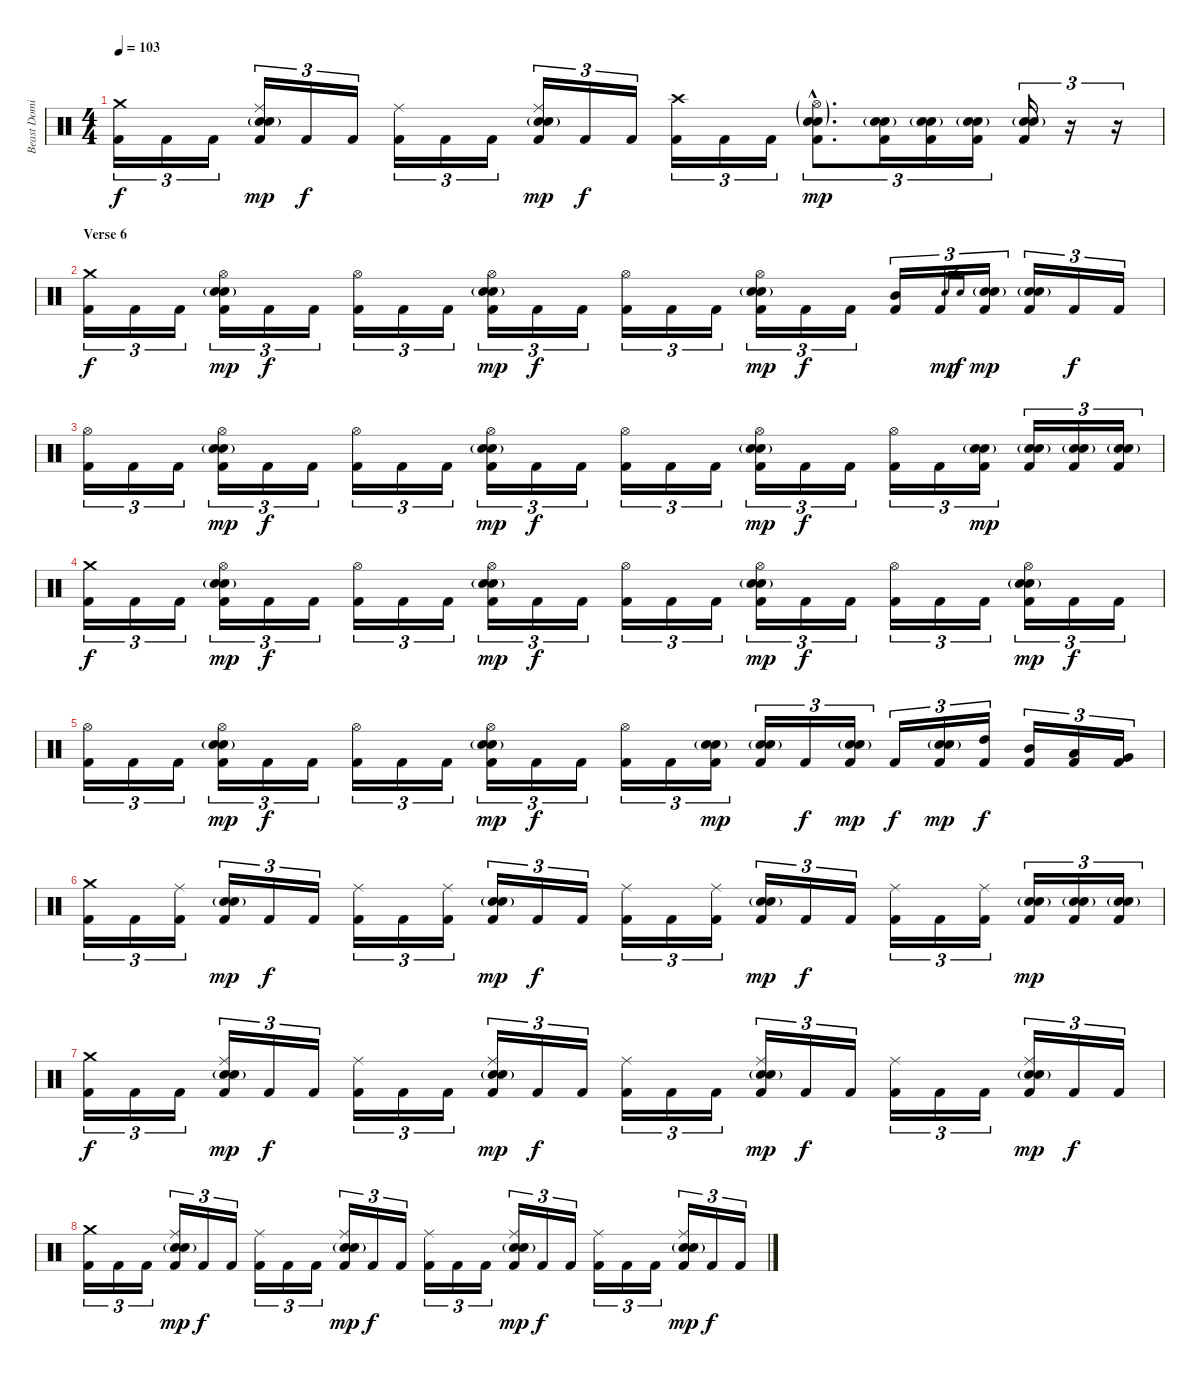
\track ("Beast Dominator" "Beast Domi") {instrument percussion}
\staff {score}
\articulation defaults
\ts (4 4)
\tempo 103
\clef neutral
\ks c
("Crash medium (hit)" "Kick (hit) 2").16{tu (3 2) dy f} "Kick (hit) 2".16{tu (3 2)} "Kick (hit) 2".16{tu (3 2)} ("Ride (middle)" "Electric Snare (hit)"{g} "Snare (hit) 2" "Kick (hit) 2").16{tu (3 2) dy mp} "Kick (hit) 2".16{tu (3 2) dy f} "Kick (hit) 2".16{tu (3 2)} ("Ride (middle)" "Kick (hit) 2").16{tu (3 2)} "Kick (hit) 2".16{tu (3 2)} "Kick (hit) 2".16{tu (3 2)} ("Ride (middle)" "Electric Snare (hit)"{g} "Snare (hit) 2" "Kick (hit) 2").16{tu (3 2) dy mp} "Kick (hit) 2".16{tu (3 2) dy f} "Kick (hit) 2".16{tu (3 2)} ("Crash high (hit)" "Kick (hit) 2").16{tu (3 2)} "Kick (hit) 2".16{tu (3 2)} "Kick (hit) 2".16{tu (3 2)} ("Hi-Hat (open)"{g hac} "Electric Snare (hit)"{g hac} "Snare (hit) 2"{hac} "Kick (hit) 2"{hac}).8{d tu (3 2) dy mp} ("Electric Snare (hit)"{g} "Snare (hit) 2" "Kick (hit) 2").16{tu (3 2)} ("Electric Snare (hit)"{g} "Snare (hit) 2" "Kick (hit) 2").16{tu (3 2)} ("Electric Snare (hit)"{g} "Snare (hit) 2" "Kick (hit) 2").16{tu (3 2)} ("Electric Snare (hit)"{g} "Snare (hit) 2" "Kick (hit) 2").16{tu (3 2)} r.16{tu (3 2)} r.16{tu (3 2)} |
\section ("" "Verse 6")
("Crash medium (hit)" "Kick (hit) 2").16{tu (3 2) dy f} "Kick (hit) 2".16{tu (3 2)} "Kick (hit) 2".16{tu (3 2)} ("Hi-Hat (open)" "Electric Snare (hit)"{g} "Snare (hit) 2" "Kick (hit) 2").16{tu (3 2) dy mp} "Kick (hit) 2".16{tu (3 2) dy f} "Kick (hit) 2".16{tu (3 2)} ("Hi-Hat (open)" "Kick (hit) 2").16{tu (3 2)} "Kick (hit) 2".16{tu (3 2)} "Kick (hit) 2".16{tu (3 2)} ("Hi-Hat (open)" "Electric Snare (hit)"{g} "Snare (hit) 2" "Kick (hit) 2").16{tu (3 2) dy mp} "Kick (hit) 2".16{tu (3 2) dy f} "Kick (hit) 2".16{tu (3 2)} ("Hi-Hat (open)" "Kick (hit) 2").16{tu (3 2)} "Kick (hit) 2".16{tu (3 2)} "Kick (hit) 2".16{tu (3 2)} ("Hi-Hat (open)" "Electric Snare (hit)"{g} "Snare (hit) 2" "Kick (hit) 2").16{tu (3 2) dy mp} "Kick (hit) 2".16{tu (3 2) dy f} "Kick (hit) 2".16{tu (3 2)} ("Mid Tom (hit)" "Kick (hit) 2").16{tu (3 2)} "Kick (hit) 2".16{tu (3 2)} "Electric Snare (hit)".16{gr dy mp} "Snare (hit) 2".16{gr dy f} ("Electric Snare (hit)"{g} "Snare (hit) 2" "Kick (hit) 2").16{tu (3 2) dy mp} ("Electric Snare (hit)"{g} "Snare (hit) 2" "Kick (hit) 2").16{tu (3 2)} "Kick (hit) 2".16{tu (3 2) dy f} "Kick (hit) 2".16{tu (3 2)} |
("Hi-Hat (open)" "Kick (hit) 2").16{tu (3 2)} "Kick (hit) 2".16{tu (3 2)} "Kick (hit) 2".16{tu (3 2)} ("Hi-Hat (open)" "Electric Snare (hit)"{g} "Snare (hit) 2" "Kick (hit) 2").16{tu (3 2) dy mp} "Kick (hit) 2".16{tu (3 2) dy f} "Kick (hit) 2".16{tu (3 2)} ("Hi-Hat (open)" "Kick (hit) 2").16{tu (3 2)} "Kick (hit) 2".16{tu (3 2)} "Kick (hit) 2".16{tu (3 2)} ("Hi-Hat (open)" "Electric Snare (hit)"{g} "Snare (hit) 2" "Kick (hit) 2").16{tu (3 2) dy mp} "Kick (hit) 2".16{tu (3 2) dy f} "Kick (hit) 2".16{tu (3 2)} ("Hi-Hat (open)" "Kick (hit) 2").16{tu (3 2)} "Kick (hit) 2".16{tu (3 2)} "Kick (hit) 2".16{tu (3 2)} ("Hi-Hat (open)" "Electric Snare (hit)"{g} "Snare (hit) 2" "Kick (hit) 2").16{tu (3 2) dy mp} "Kick (hit) 2".16{tu (3 2) dy f} "Kick (hit) 2".16{tu (3 2)} ("Hi-Hat (open)" "Kick (hit) 2").16{tu (3 2)} "Kick (hit) 2".16{tu (3 2)} ("Electric Snare (hit)"{g} "Snare (hit) 2" "Kick (hit) 2").16{tu (3 2) dy mp} ("Electric Snare (hit)"{g} "Snare (hit) 2" "Kick (hit) 2").16{tu (3 2)} ("Electric Snare (hit)"{g} "Snare (hit) 2" "Kick (hit) 2").16{tu (3 2)} ("Electric Snare (hit)"{g} "Snare (hit) 2" "Kick (hit) 2").16{tu (3 2)} |
("Crash medium (hit)" "Kick (hit) 2").16{tu (3 2) dy f} "Kick (hit) 2".16{tu (3 2)} "Kick (hit) 2".16{tu (3 2)} ("Hi-Hat (open)" "Electric Snare (hit)"{g} "Snare (hit) 2" "Kick (hit) 2").16{tu (3 2) dy mp} "Kick (hit) 2".16{tu (3 2) dy f} "Kick (hit) 2".16{tu (3 2)} ("Hi-Hat (open)" "Kick (hit) 2").16{tu (3 2)} "Kick (hit) 2".16{tu (3 2)} "Kick (hit) 2".16{tu (3 2)} ("Hi-Hat (open)" "Electric Snare (hit)"{g} "Snare (hit) 2" "Kick (hit) 2").16{tu (3 2) dy mp} "Kick (hit) 2".16{tu (3 2) dy f} "Kick (hit) 2".16{tu (3 2)} ("Hi-Hat (open)" "Kick (hit) 2").16{tu (3 2)} "Kick (hit) 2".16{tu (3 2)} "Kick (hit) 2".16{tu (3 2)} ("Hi-Hat (open)" "Electric Snare (hit)"{g} "Snare (hit) 2" "Kick (hit) 2").16{tu (3 2) dy mp} "Kick (hit) 2".16{tu (3 2) dy f} "Kick (hit) 2".16{tu (3 2)} ("Hi-Hat (open)" "Kick (hit) 2").16{tu (3 2)} "Kick (hit) 2".16{tu (3 2)} "Kick (hit) 2".16{tu (3 2)} ("Hi-Hat (open)" "Electric Snare (hit)"{g} "Snare (hit) 2" "Kick (hit) 2").16{tu (3 2) dy mp} "Kick (hit) 2".16{tu (3 2) dy f} "Kick (hit) 2".16{tu (3 2)} |
("Hi-Hat (open)" "Kick (hit) 2").16{tu (3 2)} "Kick (hit) 2".16{tu (3 2)} "Kick (hit) 2".16{tu (3 2)} ("Hi-Hat (open)" "Electric Snare (hit)"{g} "Snare (hit) 2" "Kick (hit) 2").16{tu (3 2) dy mp} "Kick (hit) 2".16{tu (3 2) dy f} "Kick (hit) 2".16{tu (3 2)} ("Hi-Hat (open)" "Kick (hit) 2").16{tu (3 2)} "Kick (hit) 2".16{tu (3 2)} "Kick (hit) 2".16{tu (3 2)} ("Hi-Hat (open)" "Electric Snare (hit)"{g} "Snare (hit) 2" "Kick (hit) 2").16{tu (3 2) dy mp} "Kick (hit) 2".16{tu (3 2) dy f} "Kick (hit) 2".16{tu (3 2)} ("Hi-Hat (open)" "Kick (hit) 2").16{tu (3 2)} "Kick (hit) 2".16{tu (3 2)} ("Electric Snare (hit)"{g} "Snare (hit) 2" "Kick (hit) 2").16{tu (3 2) dy mp} ("Electric Snare (hit)"{g} "Snare (hit) 2" "Kick (hit) 2").16{tu (3 2)} "Kick (hit) 2".16{tu (3 2) dy f} ("Electric Snare (hit)"{g} "Snare (hit) 2" "Kick (hit) 2").16{tu (3 2) dy mp} "Kick (hit) 2".16{tu (3 2) dy f} ("Electric Snare (hit)"{g} "Snare (hit) 2" "Kick (hit) 2").16{tu (3 2) dy mp} ("High Tom (hit)" "Kick (hit) 2").16{tu (3 2) dy f} ("Mid Tom (hit)" "Kick (hit) 2").16{tu (3 2)} ("Low Tom (hit)" "Kick (hit) 2").16{tu (3 2)} ("Very Low Tom (hit)" "Kick (hit) 2").16{tu (3 2)} |
("Crash medium (hit)" "Kick (hit) 2").16{tu (3 2)} "Kick (hit) 2".16{tu (3 2)} ("Ride (middle)" "Kick (hit) 2").16{tu (3 2)} ("Electric Snare (hit)"{g} "Snare (hit) 2" "Kick (hit) 2").16{tu (3 2) dy mp} "Kick (hit) 2".16{tu (3 2) dy f} "Kick (hit) 2".16{tu (3 2)} ("Ride (middle)" "Kick (hit) 2").16{tu (3 2)} "Kick (hit) 2".16{tu (3 2)} ("Ride (middle)" "Kick (hit) 2").16{tu (3 2)} ("Electric Snare (hit)"{g} "Snare (hit) 2" "Kick (hit) 2").16{tu (3 2) dy mp} "Kick (hit) 2".16{tu (3 2) dy f} "Kick (hit) 2".16{tu (3 2)} ("Ride (middle)" "Kick (hit) 2").16{tu (3 2)} "Kick (hit) 2".16{tu (3 2)} ("Ride (middle)" "Kick (hit) 2").16{tu (3 2)} ("Electric Snare (hit)"{g} "Snare (hit) 2" "Kick (hit) 2").16{tu (3 2) dy mp} "Kick (hit) 2".16{tu (3 2) dy f} "Kick (hit) 2".16{tu (3 2)} ("Ride (middle)" "Kick (hit) 2").16{tu (3 2)} "Kick (hit) 2".16{tu (3 2)} ("Ride (middle)" "Kick (hit) 2").16{tu (3 2)} ("Electric Snare (hit)"{g} "Snare (hit) 2" "Kick (hit) 2").16{tu (3 2) dy mp} ("Electric Snare (hit)"{g} "Snare (hit) 2" "Kick (hit) 2").16{tu (3 2)} ("Electric Snare (hit)"{g} "Snare (hit) 2" "Kick (hit) 2").16{tu (3 2)} |
("Crash medium (hit)" "Kick (hit) 2").16{tu (3 2) dy f} "Kick (hit) 2".16{tu (3 2)} "Kick (hit) 2".16{tu (3 2)} ("Ride (middle)" "Electric Snare (hit)"{g} "Snare (hit) 2" "Kick (hit) 2").16{tu (3 2) dy mp} "Kick (hit) 2".16{tu (3 2) dy f} "Kick (hit) 2".16{tu (3 2)} ("Ride (middle)" "Kick (hit) 2").16{tu (3 2)} "Kick (hit) 2".16{tu (3 2)} "Kick (hit) 2".16{tu (3 2)} ("Ride (middle)" "Electric Snare (hit)"{g} "Snare (hit) 2" "Kick (hit) 2").16{tu (3 2) dy mp} "Kick (hit) 2".16{tu (3 2) dy f} "Kick (hit) 2".16{tu (3 2)} ("Ride (middle)" "Kick (hit) 2").16{tu (3 2)} "Kick (hit) 2".16{tu (3 2)} "Kick (hit) 2".16{tu (3 2)} ("Ride (middle)" "Electric Snare (hit)"{g} "Snare (hit) 2" "Kick (hit) 2").16{tu (3 2) dy mp} "Kick (hit) 2".16{tu (3 2) dy f} "Kick (hit) 2".16{tu (3 2)} ("Ride (middle)" "Kick (hit) 2").16{tu (3 2)} "Kick (hit) 2".16{tu (3 2)} "Kick (hit) 2".16{tu (3 2)} ("Ride (middle)" "Electric Snare (hit)"{g} "Snare (hit) 2" "Kick (hit) 2").16{tu (3 2) dy mp} "Kick (hit) 2".16{tu (3 2) dy f} "Kick (hit) 2".16{tu (3 2)} |
("Crash medium (hit)" "Kick (hit) 2").16{tu (3 2)} "Kick (hit) 2".16{tu (3 2)} "Kick (hit) 2".16{tu (3 2)} ("Ride (middle)" "Electric Snare (hit)"{g} "Snare (hit) 2" "Kick (hit) 2").16{tu (3 2) dy mp} "Kick (hit) 2".16{tu (3 2) dy f} "Kick (hit) 2".16{tu (3 2)} ("Ride (middle)" "Kick (hit) 2").16{tu (3 2)} "Kick (hit) 2".16{tu (3 2)} "Kick (hit) 2".16{tu (3 2)} ("Ride (middle)" "Electric Snare (hit)"{g} "Snare (hit) 2" "Kick (hit) 2").16{tu (3 2) dy mp} "Kick (hit) 2".16{tu (3 2) dy f} "Kick (hit) 2".16{tu (3 2)} ("Ride (middle)" "Kick (hit) 2").16{tu (3 2)} "Kick (hit) 2".16{tu (3 2)} "Kick (hit) 2".16{tu (3 2)} ("Ride (middle)" "Electric Snare (hit)"{g} "Snare (hit) 2" "Kick (hit) 2").16{tu (3 2) dy mp} "Kick (hit) 2".16{tu (3 2) dy f} "Kick (hit) 2".16{tu (3 2)} ("Ride (middle)" "Kick (hit) 2").16{tu (3 2)} "Kick (hit) 2".16{tu (3 2)} "Kick (hit) 2".16{tu (3 2)} ("Ride (middle)" "Electric Snare (hit)"{g} "Snare (hit) 2" "Kick (hit) 2").16{tu (3 2) dy mp} "Kick (hit) 2".16{tu (3 2) dy f} "Kick (hit) 2".16{tu (3 2)}
